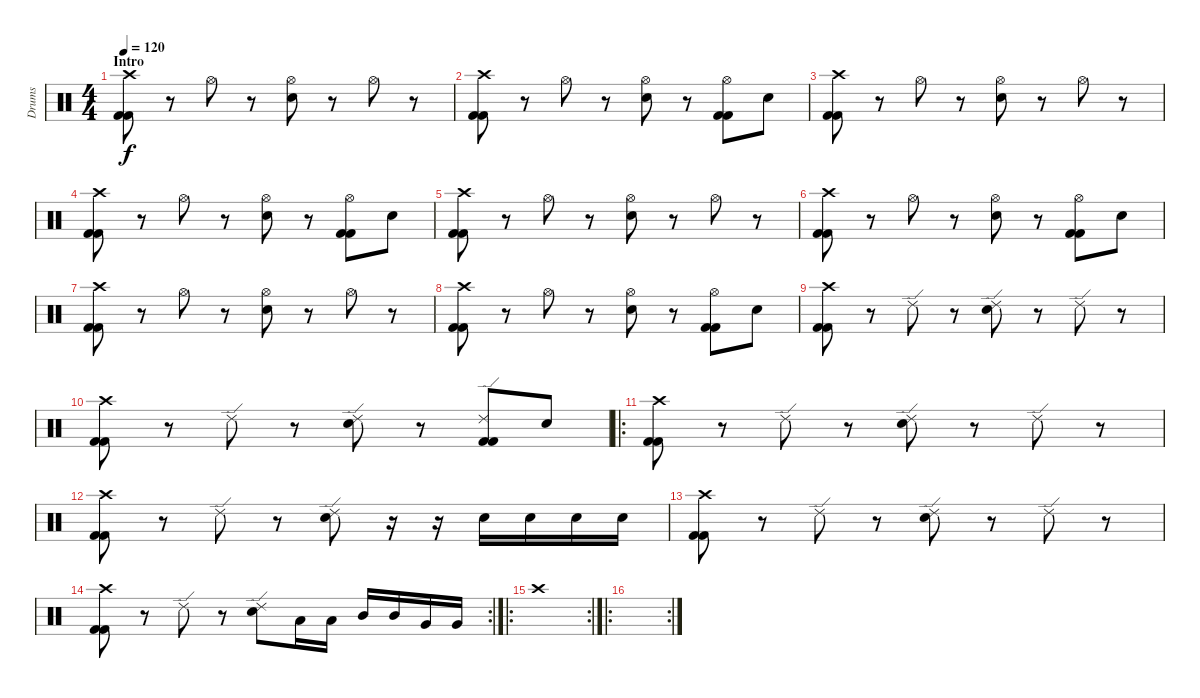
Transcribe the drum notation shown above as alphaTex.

\track ("Drums" "Drums") {instrument percussion}
\staff {score}
\articulation defaults
\ts (4 4)
\section ("" "Intro")
\tempo 120
\clef neutral
\ks c
("Crash high (hit)" "Kick (hit) 2" "Kick (hit) 2").8{dy f} r.8 "Hi-Hat (open)".8 r.8 ("Hi-Hat (open)" "Electric Snare (hit)").8 r.8 "Hi-Hat (open)".8 r.8 |
("Crash high (hit)" "Kick (hit) 2" "Kick (hit) 2").8 r.8 "Hi-Hat (open)".8 r.8 ("Hi-Hat (open)" "Electric Snare (hit)").8 r.8 ("Hi-Hat (open)" "Kick (hit) 2" "Kick (hit) 2").8 "Electric Snare (hit)".8 |
("Crash high (hit)" "Kick (hit) 2" "Kick (hit) 2").8 r.8 "Hi-Hat (open)".8 r.8 ("Hi-Hat (open)" "Electric Snare (hit)").8 r.8 "Hi-Hat (open)".8 r.8 |
("Crash high (hit)" "Kick (hit) 2" "Kick (hit) 2").8 r.8 "Hi-Hat (open)".8 r.8 ("Hi-Hat (open)" "Electric Snare (hit)").8 r.8 ("Hi-Hat (open)" "Kick (hit) 2" "Kick (hit) 2").8 "Electric Snare (hit)".8 |
("Crash high (hit)" "Kick (hit) 2" "Kick (hit) 2").8 r.8 "Hi-Hat (open)".8 r.8 ("Hi-Hat (open)" "Electric Snare (hit)").8 r.8 "Hi-Hat (open)".8 r.8 |
("Crash high (hit)" "Kick (hit) 2" "Kick (hit) 2").8 r.8 "Hi-Hat (open)".8 r.8 ("Hi-Hat (open)" "Electric Snare (hit)").8 r.8 ("Hi-Hat (open)" "Kick (hit) 2" "Kick (hit) 2").8 "Electric Snare (hit)".8 |
("Crash high (hit)" "Kick (hit) 2" "Kick (hit) 2").8 r.8 "Hi-Hat (open)".8 r.8 ("Hi-Hat (open)" "Electric Snare (hit)").8 r.8 "Hi-Hat (open)".8 r.8 |
("Crash high (hit)" "Kick (hit) 2" "Kick (hit) 2").8 r.8 "Hi-Hat (open)".8 r.8 ("Hi-Hat (open)" "Electric Snare (hit)").8 r.8 ("Hi-Hat (open)" "Kick (hit) 2" "Kick (hit) 2").8 "Electric Snare (hit)".8 |
("Crash high (hit)" "Kick (hit) 2" "Kick (hit) 2").8 r.8 "Ride (edge) 2".8 r.8 ("Ride (edge) 2" "Electric Snare (hit)").8 r.8 "Ride (edge) 2".8 r.8 |
("Crash high (hit)" "Kick (hit) 2" "Kick (hit) 2").8 r.8 "Ride (edge) 2".8 r.8 ("Ride (edge) 2" "Electric Snare (hit)").8 r.8 ("Ride (edge) 2" "Kick (hit) 2" "Kick (hit) 2").8 "Electric Snare (hit)".8 |
\ro
("Crash high (hit)" "Kick (hit) 2" "Kick (hit) 2").8 r.8 "Ride (edge) 2".8 r.8 ("Ride (edge) 2" "Electric Snare (hit)").8 r.8 "Ride (edge) 2".8 r.8 |
("Crash high (hit)" "Kick (hit) 2" "Kick (hit) 2").8 r.8 "Ride (edge) 2".8 r.8 ("Ride (edge) 2" "Electric Snare (hit)").8 r.16 r.16 "Electric Snare (hit)".16 "Electric Snare (hit)".16 "Electric Snare (hit)".16 "Electric Snare (hit)".16 |
("Crash high (hit)" "Kick (hit) 2" "Kick (hit) 2").8 r.8 "Ride (edge) 2".8 r.8 ("Ride (edge) 2" "Electric Snare (hit)").8 r.8 "Ride (edge) 2".8 r.8 |
\rc 2
("Crash high (hit)" "Kick (hit) 2" "Kick (hit) 2").8 r.8 "Ride (edge) 2".8 r.8 ("Ride (edge) 2" "Electric Snare (hit)").8 "Low Tom (hit)".16 "Low Tom (hit)".16 "Mid Tom (hit)".16 "Mid Tom (hit)".16 "Very Low Tom (hit)".16 "Very Low Tom (hit)".16 |
\ro
\rc 2 "Crash high (hit)".1
|
\ro
\rc 2
